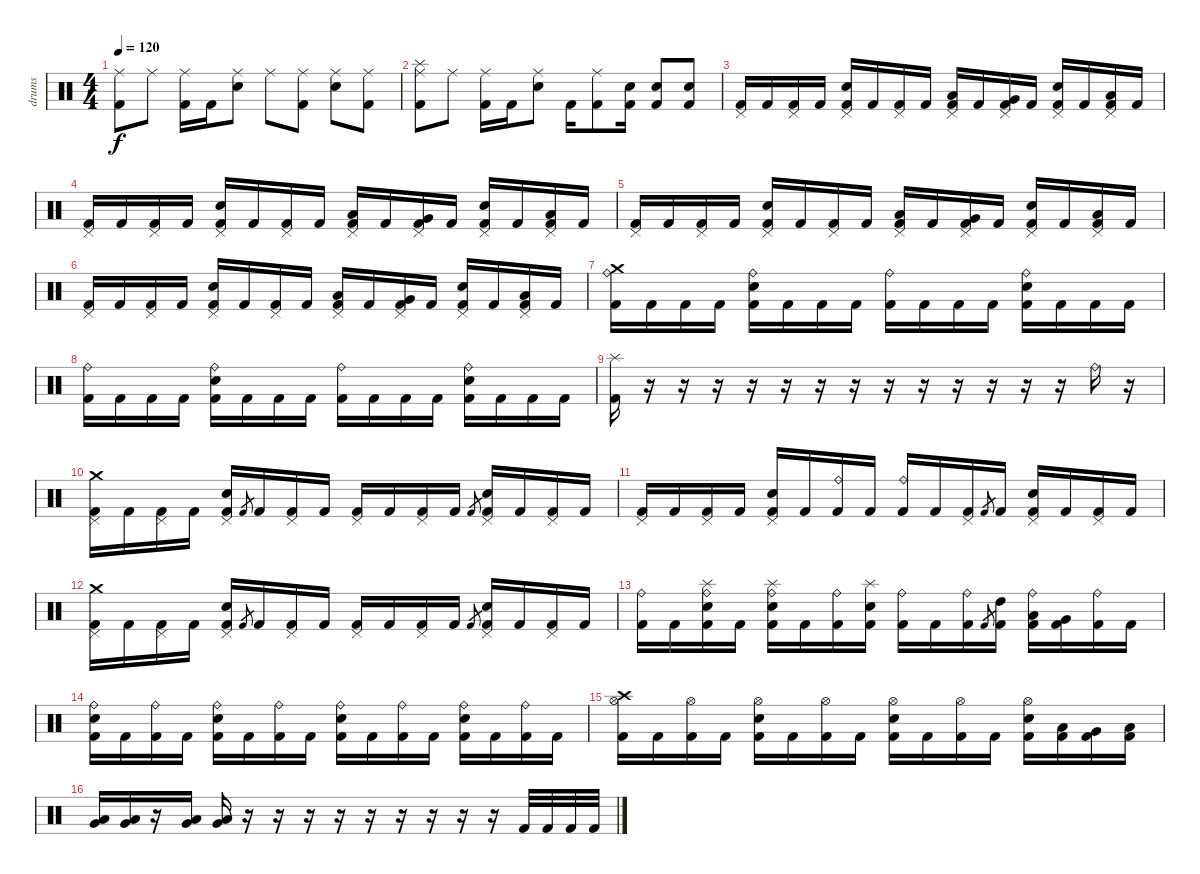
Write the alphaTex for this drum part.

\track ("drums" "drums") {instrument percussion}
\staff {score}
\articulation defaults
\ts (4 4)
\tempo 120
\clef neutral
\ks c
("Ride (middle)" "Kick (hit) 2").8{dy f} "Ride (middle)".8 ("Ride (middle)" "Kick (hit) 2").16 "Kick (hit) 2".16 ("Ride (middle)" "Electric Snare (hit)").8 "Ride (middle)".8 ("Ride (middle)" "Kick (hit) 2").8 ("Ride (middle)" "Electric Snare (hit)").8 ("Ride (middle)" "Kick (hit) 2").8 |
("Splash (hit)" "Ride (middle)" "Kick (hit) 2").8 "Ride (middle)".8 ("Ride (middle)" "Kick (hit) 2").16 "Kick (hit) 2".16 ("Ride (middle)" "Electric Snare (hit)").8 "Kick (hit) 2".16 ("Ride (middle)" "Kick (hit) 2").8 ("Kick (hit) 2" "Electric Snare (hit)").16 ("Kick (hit) 2" "Electric Snare (hit)").8 ("Kick (hit) 2" "Electric Snare (hit)").8 |
("Pedal Hi-Hat (hit)" "Kick (hit) 2").16 "Kick (hit) 2".16 ("Pedal Hi-Hat (hit)" "Kick (hit) 2").16 "Kick (hit) 2".16 ("Electric Snare (hit)" "Pedal Hi-Hat (hit)" "Kick (hit) 2").16 "Kick (hit) 2".16 ("Pedal Hi-Hat (hit)" "Kick (hit) 2").16 "Kick (hit) 2".16 ("Low Tom (hit)" "Pedal Hi-Hat (hit)" "Kick (hit) 2").16 "Kick (hit) 2".16 ("Very Low Tom (hit)" "Pedal Hi-Hat (hit)" "Kick (hit) 2").16 "Kick (hit) 2".16 ("Electric Snare (hit)" "Pedal Hi-Hat (hit)" "Kick (hit) 2").16 "Kick (hit) 2".16 ("Low Floor Tom (hit)" "Pedal Hi-Hat (hit)" "Kick (hit) 2").16 "Kick (hit) 2".16 |
("Pedal Hi-Hat (hit)" "Kick (hit) 2").16 "Kick (hit) 2".16 ("Pedal Hi-Hat (hit)" "Kick (hit) 2").16 "Kick (hit) 2".16 ("Electric Snare (hit)" "Pedal Hi-Hat (hit)" "Kick (hit) 2").16 "Kick (hit) 2".16 ("Pedal Hi-Hat (hit)" "Kick (hit) 2").16 "Kick (hit) 2".16 ("Low Tom (hit)" "Pedal Hi-Hat (hit)" "Kick (hit) 2").16 "Kick (hit) 2".16 ("Very Low Tom (hit)" "Pedal Hi-Hat (hit)" "Kick (hit) 2").16 "Kick (hit) 2".16 ("Electric Snare (hit)" "Pedal Hi-Hat (hit)" "Kick (hit) 2").16 "Kick (hit) 2".16 ("Low Floor Tom (hit)" "Pedal Hi-Hat (hit)" "Kick (hit) 2").16 "Kick (hit) 2".16 |
("Pedal Hi-Hat (hit)" "Kick (hit) 2").16 "Kick (hit) 2".16 ("Pedal Hi-Hat (hit)" "Kick (hit) 2").16 "Kick (hit) 2".16 ("Electric Snare (hit)" "Pedal Hi-Hat (hit)" "Kick (hit) 2").16 "Kick (hit) 2".16 ("Pedal Hi-Hat (hit)" "Kick (hit) 2").16 "Kick (hit) 2".16 ("Low Tom (hit)" "Pedal Hi-Hat (hit)" "Kick (hit) 2").16 "Kick (hit) 2".16 ("Very Low Tom (hit)" "Pedal Hi-Hat (hit)" "Kick (hit) 2").16 "Kick (hit) 2".16 ("Electric Snare (hit)" "Pedal Hi-Hat (hit)" "Kick (hit) 2").16 "Kick (hit) 2".16 ("Low Floor Tom (hit)" "Pedal Hi-Hat (hit)" "Kick (hit) 2").16 "Kick (hit) 2".16 |
("Pedal Hi-Hat (hit)" "Kick (hit) 2").16 "Kick (hit) 2".16 ("Pedal Hi-Hat (hit)" "Kick (hit) 2").16 "Kick (hit) 2".16 ("Electric Snare (hit)" "Pedal Hi-Hat (hit)" "Kick (hit) 2").16 "Kick (hit) 2".16 ("Pedal Hi-Hat (hit)" "Kick (hit) 2").16 "Kick (hit) 2".16 ("Low Tom (hit)" "Pedal Hi-Hat (hit)" "Kick (hit) 2").16 "Kick (hit) 2".16 ("Very Low Tom (hit)" "Pedal Hi-Hat (hit)" "Kick (hit) 2").16 "Kick (hit) 2".16 ("Electric Snare (hit)" "Pedal Hi-Hat (hit)" "Kick (hit) 2").16 "Kick (hit) 2".16 ("Low Floor Tom (hit)" "Pedal Hi-Hat (hit)" "Kick (hit) 2").16 "Kick (hit) 2".16 |
("Crash medium (hit)" "Ride (bell)" "Kick (hit) 2").16 "Kick (hit) 2".16 "Kick (hit) 2".16 "Kick (hit) 2".16 ("Electric Snare (hit)" "Ride (bell)" "Kick (hit) 2").16 "Kick (hit) 2".16 "Kick (hit) 2".16 "Kick (hit) 2".16 ("Ride (bell)" "Kick (hit) 2").16 "Kick (hit) 2".16 "Kick (hit) 2".16 "Kick (hit) 2".16 ("Electric Snare (hit)" "Ride (bell)" "Kick (hit) 2").16 "Kick (hit) 2".16 "Kick (hit) 2".16 "Kick (hit) 2".16 |
("Ride (bell)" "Kick (hit) 2").16 "Kick (hit) 2".16 "Kick (hit) 2".16 "Kick (hit) 2".16 ("Electric Snare (hit)" "Ride (bell)" "Kick (hit) 2").16 "Kick (hit) 2".16 "Kick (hit) 2".16 "Kick (hit) 2".16 ("Ride (bell)" "Kick (hit) 2").16 "Kick (hit) 2".16 "Kick (hit) 2".16 "Kick (hit) 2".16 ("Electric Snare (hit)" "Ride (bell)" "Kick (hit) 2").16 "Kick (hit) 2".16 "Kick (hit) 2".16 "Kick (hit) 2".16 |
("Splash (hit)" "Kick (hit) 2").16 r.16 r.16 r.16 r.16 r.16 r.16 r.16 r.16 r.16 r.16 r.16 r.16 r.16 "Ride (bell)".16 r.16 |
("Crash medium (hit)" "Pedal Hi-Hat (hit)" "Kick (hit) 2").16 "Kick (hit) 2".16 ("Pedal Hi-Hat (hit)" "Kick (hit) 2").16 "Kick (hit) 2".16 ("Electric Snare (hit)" "Pedal Hi-Hat (hit)" "Kick (hit) 2").16 "Kick (hit) 2".8{gr} "Kick (hit) 2".16 ("Pedal Hi-Hat (hit)" "Kick (hit) 2").16 "Kick (hit) 2".16 ("Pedal Hi-Hat (hit)" "Kick (hit) 2").16 "Kick (hit) 2".16 ("Pedal Hi-Hat (hit)" "Kick (hit) 2").16 "Kick (hit) 2".16 "Kick (hit) 2".8{gr} ("Electric Snare (hit)" "Pedal Hi-Hat (hit)" "Kick (hit) 2").16 "Kick (hit) 2".16 ("Pedal Hi-Hat (hit)" "Kick (hit) 2").16 "Kick (hit) 2".16 |
("Pedal Hi-Hat (hit)" "Kick (hit) 2").16 "Kick (hit) 2".16 ("Pedal Hi-Hat (hit)" "Kick (hit) 2").16 "Kick (hit) 2".16 ("Electric Snare (hit)" "Pedal Hi-Hat (hit)" "Kick (hit) 2").16 "Kick (hit) 2".16 ("Ride (bell)" "Kick (hit) 2").16 "Kick (hit) 2".16 ("Ride (bell)" "Kick (hit) 2").16 "Kick (hit) 2".16 ("Pedal Hi-Hat (hit)" "Kick (hit) 2").16 "Kick (hit) 2".8{gr} "Kick (hit) 2".16 ("Electric Snare (hit)" "Pedal Hi-Hat (hit)" "Kick (hit) 2").16 "Kick (hit) 2".16 ("Pedal Hi-Hat (hit)" "Kick (hit) 2").16 "Kick (hit) 2".16 |
("Crash medium (hit)" "Pedal Hi-Hat (hit)" "Kick (hit) 2").16 "Kick (hit) 2".16 ("Pedal Hi-Hat (hit)" "Kick (hit) 2").16 "Kick (hit) 2".16 ("Electric Snare (hit)" "Pedal Hi-Hat (hit)" "Kick (hit) 2").16 "Kick (hit) 2".8{gr} "Kick (hit) 2".16 ("Pedal Hi-Hat (hit)" "Kick (hit) 2").16 "Kick (hit) 2".16 ("Pedal Hi-Hat (hit)" "Kick (hit) 2").16 "Kick (hit) 2".16 ("Pedal Hi-Hat (hit)" "Kick (hit) 2").16 "Kick (hit) 2".16 "Kick (hit) 2".8{gr} ("Electric Snare (hit)" "Pedal Hi-Hat (hit)" "Kick (hit) 2").16 "Kick (hit) 2".16 ("Pedal Hi-Hat (hit)" "Kick (hit) 2").16 "Kick (hit) 2".16 |
("Ride (bell)" "Kick (hit) 2").16 "Kick (hit) 2".16 ("Splash (hit)" "Electric Snare (hit)" "Ride (bell)" "Kick (hit) 2").16 "Kick (hit) 2".16 ("Splash (hit)" "Electric Snare (hit)" "Ride (bell)" "Kick (hit) 2").16 "Kick (hit) 2".16 ("Ride (bell)" "Kick (hit) 2").16 ("Splash (hit)" "Electric Snare (hit)" "Kick (hit) 2").16 ("Ride (bell)" "Kick (hit) 2").16 "Kick (hit) 2".16 ("Ride (bell)" "Kick (hit) 2").16 "Kick (hit) 2".8{gr} ("High Tom (hit)" "Kick (hit) 2").16 ("Low Tom (hit)" "Ride (bell)" "Kick (hit) 2").16 ("Very Low Tom (hit)" "Kick (hit) 2").16 ("Ride (bell)" "Kick (hit) 2").16 "Kick (hit) 2".16 |
("Electric Snare (hit)" "Ride (bell)" "Kick (hit) 2").16 "Kick (hit) 2".16 ("Ride (bell)" "Kick (hit) 2").16 "Kick (hit) 2".16 ("Electric Snare (hit)" "Ride (bell)" "Kick (hit) 2").16 "Kick (hit) 2".16 ("Ride (bell)" "Kick (hit) 2").16 "Kick (hit) 2".16 ("Electric Snare (hit)" "Ride (bell)" "Kick (hit) 2").16 "Kick (hit) 2".16 ("Ride (bell)" "Kick (hit) 2").16 "Kick (hit) 2".16 ("Electric Snare (hit)" "Ride (bell)" "Kick (hit) 2").16 "Kick (hit) 2".16 ("Ride (bell)" "Kick (hit) 2").16 "Kick (hit) 2".16 |
("Crash high (hit)" "Hi-Hat (open)" "Kick (hit) 2").16 "Kick (hit) 2".16 ("Hi-Hat (open)" "Kick (hit) 2").16 "Kick (hit) 2".16 ("Electric Snare (hit)" "Hi-Hat (open)" "Kick (hit) 2").16 "Kick (hit) 2".16 ("Hi-Hat (open)" "Kick (hit) 2").16 "Kick (hit) 2".16 ("Electric Snare (hit)" "Hi-Hat (open)" "Kick (hit) 2").16 "Kick (hit) 2".16 ("Hi-Hat (open)" "Kick (hit) 2").16 "Kick (hit) 2".16 ("Electric Snare (hit)" "Hi-Hat (open)" "Kick (hit) 2").16 ("Low Tom (hit)" "Kick (hit) 2").16 ("Very Low Tom (hit)" "Kick (hit) 2").16 ("Low Floor Tom (hit)" "Kick (hit) 2").16 |
("Very Low Tom (hit)" "Low Floor Tom (hit)").16 ("Very Low Tom (hit)" "Low Floor Tom (hit)").16 r.16 ("Very Low Tom (hit)" "Low Floor Tom (hit)").16 ("Very Low Tom (hit)" "Low Floor Tom (hit)").16 r.16 r.16 r.16 r.16 r.16 r.16 r.16 r.16 r.16 "Kick (hit) 2".32 "Kick (hit) 2".32 "Kick (hit) 2".32 "Kick (hit) 2".32
